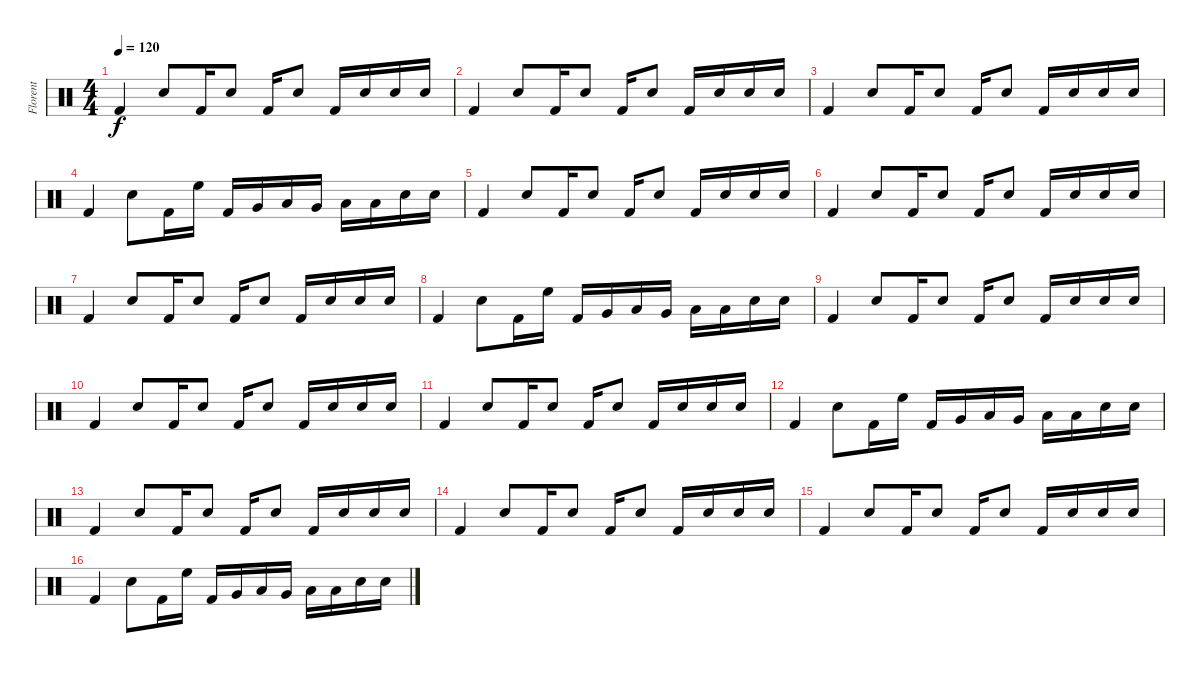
\track ("Florent" "Florent") {instrument percussion}
\staff {score}
\articulation defaults
\ts (4 4)
\tempo 120
\clef neutral
\ks c "Kick (hit) 2".4{dy f} "Electric Snare (hit)".8 "Kick (hit) 2".16 "Electric Snare (hit)".8 "Kick (hit) 2".16 "Electric Snare (hit)".8 "Kick (hit) 2".16 "Electric Snare (hit)".16 "Electric Snare (hit)".16 "Electric Snare (hit)".16
|
"Kick (hit) 2".4 "Electric Snare (hit)".8 "Kick (hit) 2".16 "Electric Snare (hit)".8 "Kick (hit) 2".16 "Electric Snare (hit)".8 "Kick (hit) 2".16 "Electric Snare (hit)".16 "Electric Snare (hit)".16 "Electric Snare (hit)".16 |
"Kick (hit) 2".4 "Electric Snare (hit)".8 "Kick (hit) 2".16 "Electric Snare (hit)".8 "Kick (hit) 2".16 "Electric Snare (hit)".8 "Kick (hit) 2".16 "Electric Snare (hit)".16 "Electric Snare (hit)".16 "Electric Snare (hit)".16 |
"Kick (hit) 2".4 "Electric Snare (hit)".8 "Kick (hit) 2".16 "High Floor Tom (hit)".16 "Kick (hit) 2".16 "Very Low Tom (hit)".16 "Low Tom (hit)".16 "Very Low Tom (hit)".16 "Low Tom (hit)".16 "Low Tom (hit)".16 "Electric Snare (hit)".16 "Electric Snare (hit)".16 |
"Kick (hit) 2".4 "Electric Snare (hit)".8 "Kick (hit) 2".16 "Electric Snare (hit)".8 "Kick (hit) 2".16 "Electric Snare (hit)".8 "Kick (hit) 2".16 "Electric Snare (hit)".16 "Electric Snare (hit)".16 "Electric Snare (hit)".16 |
"Kick (hit) 2".4 "Electric Snare (hit)".8 "Kick (hit) 2".16 "Electric Snare (hit)".8 "Kick (hit) 2".16 "Electric Snare (hit)".8 "Kick (hit) 2".16 "Electric Snare (hit)".16 "Electric Snare (hit)".16 "Electric Snare (hit)".16 |
"Kick (hit) 2".4 "Electric Snare (hit)".8 "Kick (hit) 2".16 "Electric Snare (hit)".8 "Kick (hit) 2".16 "Electric Snare (hit)".8 "Kick (hit) 2".16 "Electric Snare (hit)".16 "Electric Snare (hit)".16 "Electric Snare (hit)".16 |
"Kick (hit) 2".4 "Electric Snare (hit)".8 "Kick (hit) 2".16 "High Floor Tom (hit)".16 "Kick (hit) 2".16 "Very Low Tom (hit)".16 "Low Tom (hit)".16 "Very Low Tom (hit)".16 "Low Tom (hit)".16 "Low Tom (hit)".16 "Electric Snare (hit)".16 "Electric Snare (hit)".16 |
"Kick (hit) 2".4 "Electric Snare (hit)".8 "Kick (hit) 2".16 "Electric Snare (hit)".8 "Kick (hit) 2".16 "Electric Snare (hit)".8 "Kick (hit) 2".16 "Electric Snare (hit)".16 "Electric Snare (hit)".16 "Electric Snare (hit)".16 |
"Kick (hit) 2".4 "Electric Snare (hit)".8 "Kick (hit) 2".16 "Electric Snare (hit)".8 "Kick (hit) 2".16 "Electric Snare (hit)".8 "Kick (hit) 2".16 "Electric Snare (hit)".16 "Electric Snare (hit)".16 "Electric Snare (hit)".16 |
"Kick (hit) 2".4 "Electric Snare (hit)".8 "Kick (hit) 2".16 "Electric Snare (hit)".8 "Kick (hit) 2".16 "Electric Snare (hit)".8 "Kick (hit) 2".16 "Electric Snare (hit)".16 "Electric Snare (hit)".16 "Electric Snare (hit)".16 |
"Kick (hit) 2".4 "Electric Snare (hit)".8 "Kick (hit) 2".16 "High Floor Tom (hit)".16 "Kick (hit) 2".16 "Very Low Tom (hit)".16 "Low Tom (hit)".16 "Very Low Tom (hit)".16 "Low Tom (hit)".16 "Low Tom (hit)".16 "Electric Snare (hit)".16 "Electric Snare (hit)".16 |
"Kick (hit) 2".4 "Electric Snare (hit)".8 "Kick (hit) 2".16 "Electric Snare (hit)".8 "Kick (hit) 2".16 "Electric Snare (hit)".8 "Kick (hit) 2".16 "Electric Snare (hit)".16 "Electric Snare (hit)".16 "Electric Snare (hit)".16 |
"Kick (hit) 2".4 "Electric Snare (hit)".8 "Kick (hit) 2".16 "Electric Snare (hit)".8 "Kick (hit) 2".16 "Electric Snare (hit)".8 "Kick (hit) 2".16 "Electric Snare (hit)".16 "Electric Snare (hit)".16 "Electric Snare (hit)".16 |
"Kick (hit) 2".4 "Electric Snare (hit)".8 "Kick (hit) 2".16 "Electric Snare (hit)".8 "Kick (hit) 2".16 "Electric Snare (hit)".8 "Kick (hit) 2".16 "Electric Snare (hit)".16 "Electric Snare (hit)".16 "Electric Snare (hit)".16 |
"Kick (hit) 2".4 "Electric Snare (hit)".8 "Kick (hit) 2".16 "High Floor Tom (hit)".16 "Kick (hit) 2".16 "Very Low Tom (hit)".16 "Low Tom (hit)".16 "Very Low Tom (hit)".16 "Low Tom (hit)".16 "Low Tom (hit)".16 "Electric Snare (hit)".16 "Electric Snare (hit)".16
